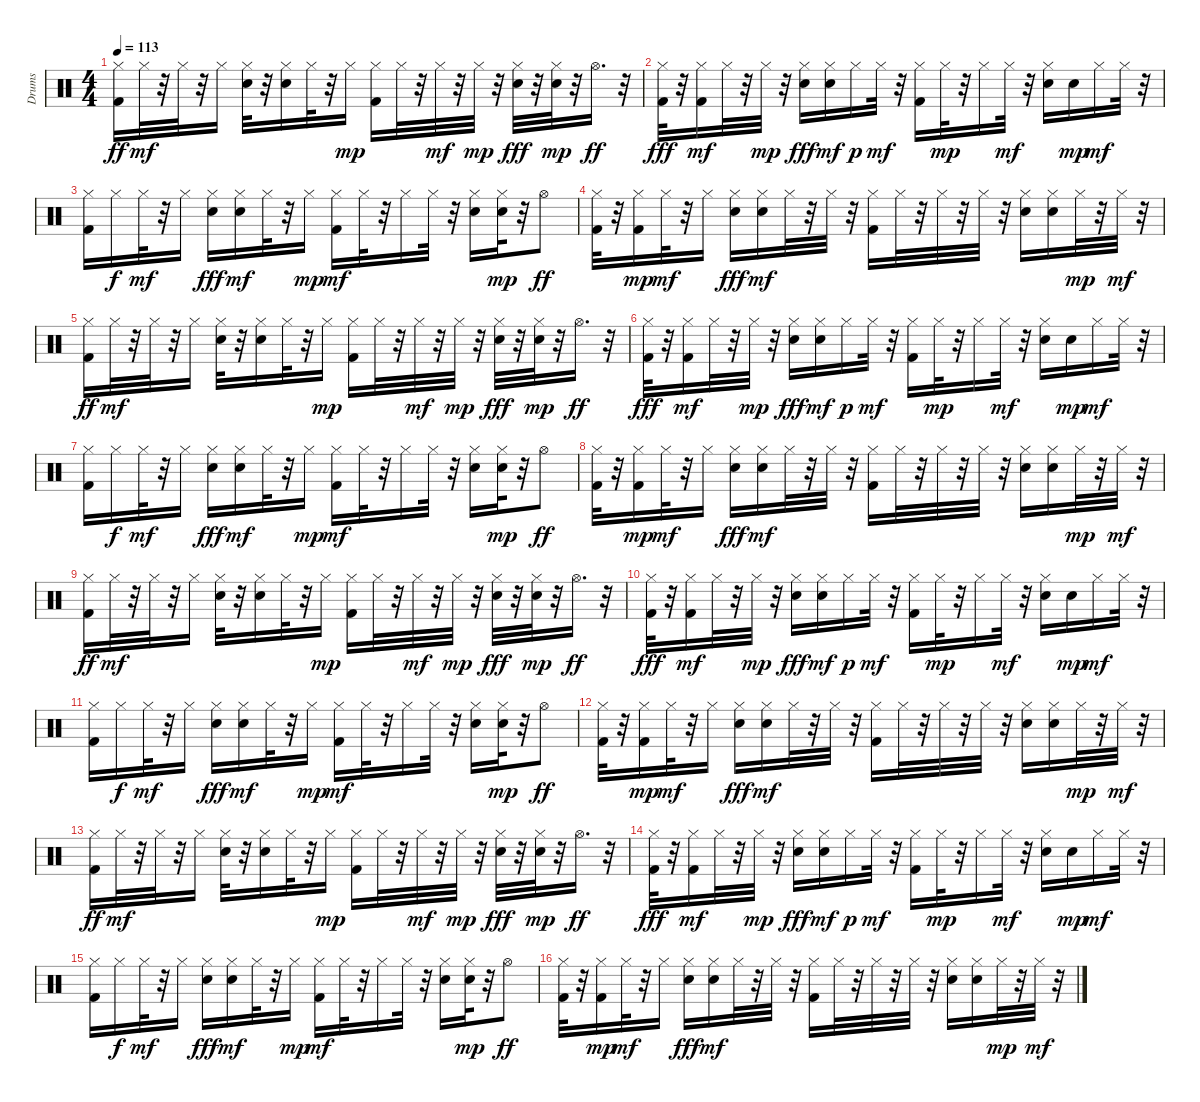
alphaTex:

\track ("Drums" "Drums") {instrument percussion}
\staff {score}
\articulation defaults
\ts (4 4)
\tempo 113
\clef neutral
\ks c
("Kick (hit) 2" "Hi-Hat (closed)").16{dy ff} "Hi-Hat (closed)".32{dy mf} r.32 "Hi-Hat (closed)".32 r.32 "Hi-Hat (closed)".16 ("Electric Snare (hit)" "Hi-Hat (closed)").32 r.32 ("Electric Snare (hit)" "Hi-Hat (closed)").16 "Hi-Hat (closed)".32 r.32 "Hi-Hat (closed)".16{dy mp} ("Kick (hit) 2" "Hi-Hat (closed)").16 "Hi-Hat (closed)".32 r.32 "Hi-Hat (closed)".32{dy mf} r.32 "Hi-Hat (closed)".32{dy mp} r.32 ("Electric Snare (hit)" "Hi-Hat (closed)").32{dy fff} r.32 ("Electric Snare (hit)" "Hi-Hat (closed)").32{dy mp} r.32 "Hi-Hat (open)".16{d dy ff} r.32 |
("Kick (hit) 2" "Hi-Hat (closed)").32{dy fff} r.32 ("Kick (hit) 2" "Hi-Hat (closed)").16{dy mf} "Hi-Hat (closed)".32 r.32 "Hi-Hat (closed)".32{dy mp} r.32 ("Electric Snare (hit)" "Hi-Hat (closed)").16{dy fff} ("Electric Snare (hit)" "Hi-Hat (closed)").16{dy mf} "Hi-Hat (closed)".16{dy p} "Hi-Hat (closed)".32{dy mf} r.32 ("Kick (hit) 2" "Hi-Hat (closed)").16 "Hi-Hat (closed)".32{dy mp} r.32 "Hi-Hat (closed)".16 "Hi-Hat (closed)".32{dy mf} r.32 ("Electric Snare (hit)" "Hi-Hat (closed)").16 "Electric Snare (hit)".16{dy mp} "Hi-Hat (closed)".16{dy mf} "Hi-Hat (closed)".32 r.32 |
("Kick (hit) 2" "Hi-Hat (closed)").16 "Hi-Hat (closed)".16{dy f} "Hi-Hat (closed)".32{dy mf} r.32 "Hi-Hat (closed)".16 ("Electric Snare (hit)" "Hi-Hat (closed)").16{dy fff} ("Electric Snare (hit)" "Hi-Hat (closed)").16{dy mf} "Hi-Hat (closed)".32 r.32 "Hi-Hat (closed)".16{dy mp} ("Kick (hit) 2" "Hi-Hat (closed)").16{dy mf} "Hi-Hat (closed)".32 r.32 "Hi-Hat (closed)".16 "Hi-Hat (closed)".32 r.32 ("Electric Snare (hit)" "Hi-Hat (closed)").16 ("Electric Snare (hit)" "Hi-Hat (closed)").32{dy mp} r.32 "Hi-Hat (open)".8{dy ff} |
("Kick (hit) 2" "Hi-Hat (closed)").32 r.32 ("Kick (hit) 2" "Hi-Hat (closed)").16{dy mp} "Hi-Hat (closed)".32{dy mf} r.32 "Hi-Hat (closed)".16 ("Electric Snare (hit)" "Hi-Hat (closed)").16{dy fff} ("Electric Snare (hit)" "Hi-Hat (closed)").16{dy mf} "Hi-Hat (closed)".32 r.32 "Hi-Hat (closed)".32 r.32 ("Kick (hit) 2" "Hi-Hat (closed)").16 "Hi-Hat (closed)".32 r.32 "Hi-Hat (closed)".32 r.32 "Hi-Hat (closed)".32 r.32 ("Electric Snare (hit)" "Hi-Hat (closed)").16 ("Electric Snare (hit)" "Hi-Hat (closed)").16 "Hi-Hat (closed)".32{dy mp} r.32 "Hi-Hat (closed)".32{dy mf} r.32 |
("Kick (hit) 2" "Hi-Hat (closed)").16{dy ff} "Hi-Hat (closed)".32{dy mf} r.32 "Hi-Hat (closed)".32 r.32 "Hi-Hat (closed)".16 ("Electric Snare (hit)" "Hi-Hat (closed)").32 r.32 ("Electric Snare (hit)" "Hi-Hat (closed)").16 "Hi-Hat (closed)".32 r.32 "Hi-Hat (closed)".16{dy mp} ("Kick (hit) 2" "Hi-Hat (closed)").16 "Hi-Hat (closed)".32 r.32 "Hi-Hat (closed)".32{dy mf} r.32 "Hi-Hat (closed)".32{dy mp} r.32 ("Electric Snare (hit)" "Hi-Hat (closed)").32{dy fff} r.32 ("Electric Snare (hit)" "Hi-Hat (closed)").32{dy mp} r.32 "Hi-Hat (open)".16{d dy ff} r.32 |
("Kick (hit) 2" "Hi-Hat (closed)").32{dy fff} r.32 ("Kick (hit) 2" "Hi-Hat (closed)").16{dy mf} "Hi-Hat (closed)".32 r.32 "Hi-Hat (closed)".32{dy mp} r.32 ("Electric Snare (hit)" "Hi-Hat (closed)").16{dy fff} ("Electric Snare (hit)" "Hi-Hat (closed)").16{dy mf} "Hi-Hat (closed)".16{dy p} "Hi-Hat (closed)".32{dy mf} r.32 ("Kick (hit) 2" "Hi-Hat (closed)").16 "Hi-Hat (closed)".32{dy mp} r.32 "Hi-Hat (closed)".16 "Hi-Hat (closed)".32{dy mf} r.32 ("Electric Snare (hit)" "Hi-Hat (closed)").16 "Electric Snare (hit)".16{dy mp} "Hi-Hat (closed)".16{dy mf} "Hi-Hat (closed)".32 r.32 |
("Kick (hit) 2" "Hi-Hat (closed)").16 "Hi-Hat (closed)".16{dy f} "Hi-Hat (closed)".32{dy mf} r.32 "Hi-Hat (closed)".16 ("Electric Snare (hit)" "Hi-Hat (closed)").16{dy fff} ("Electric Snare (hit)" "Hi-Hat (closed)").16{dy mf} "Hi-Hat (closed)".32 r.32 "Hi-Hat (closed)".16{dy mp} ("Kick (hit) 2" "Hi-Hat (closed)").16{dy mf} "Hi-Hat (closed)".32 r.32 "Hi-Hat (closed)".16 "Hi-Hat (closed)".32 r.32 ("Electric Snare (hit)" "Hi-Hat (closed)").16 ("Electric Snare (hit)" "Hi-Hat (closed)").32{dy mp} r.32 "Hi-Hat (open)".8{dy ff} |
("Kick (hit) 2" "Hi-Hat (closed)").32 r.32 ("Kick (hit) 2" "Hi-Hat (closed)").16{dy mp} "Hi-Hat (closed)".32{dy mf} r.32 "Hi-Hat (closed)".16 ("Electric Snare (hit)" "Hi-Hat (closed)").16{dy fff} ("Electric Snare (hit)" "Hi-Hat (closed)").16{dy mf} "Hi-Hat (closed)".32 r.32 "Hi-Hat (closed)".32 r.32 ("Kick (hit) 2" "Hi-Hat (closed)").16 "Hi-Hat (closed)".32 r.32 "Hi-Hat (closed)".32 r.32 "Hi-Hat (closed)".32 r.32 ("Electric Snare (hit)" "Hi-Hat (closed)").16 ("Electric Snare (hit)" "Hi-Hat (closed)").16 "Hi-Hat (closed)".32{dy mp} r.32 "Hi-Hat (closed)".32{dy mf} r.32 |
("Kick (hit) 2" "Hi-Hat (closed)").16{dy ff} "Hi-Hat (closed)".32{dy mf} r.32 "Hi-Hat (closed)".32 r.32 "Hi-Hat (closed)".16 ("Electric Snare (hit)" "Hi-Hat (closed)").32 r.32 ("Electric Snare (hit)" "Hi-Hat (closed)").16 "Hi-Hat (closed)".32 r.32 "Hi-Hat (closed)".16{dy mp} ("Kick (hit) 2" "Hi-Hat (closed)").16 "Hi-Hat (closed)".32 r.32 "Hi-Hat (closed)".32{dy mf} r.32 "Hi-Hat (closed)".32{dy mp} r.32 ("Electric Snare (hit)" "Hi-Hat (closed)").32{dy fff} r.32 ("Electric Snare (hit)" "Hi-Hat (closed)").32{dy mp} r.32 "Hi-Hat (open)".16{d dy ff} r.32 |
("Kick (hit) 2" "Hi-Hat (closed)").32{dy fff} r.32 ("Kick (hit) 2" "Hi-Hat (closed)").16{dy mf} "Hi-Hat (closed)".32 r.32 "Hi-Hat (closed)".32{dy mp} r.32 ("Electric Snare (hit)" "Hi-Hat (closed)").16{dy fff} ("Electric Snare (hit)" "Hi-Hat (closed)").16{dy mf} "Hi-Hat (closed)".16{dy p} "Hi-Hat (closed)".32{dy mf} r.32 ("Kick (hit) 2" "Hi-Hat (closed)").16 "Hi-Hat (closed)".32{dy mp} r.32 "Hi-Hat (closed)".16 "Hi-Hat (closed)".32{dy mf} r.32 ("Electric Snare (hit)" "Hi-Hat (closed)").16 "Electric Snare (hit)".16{dy mp} "Hi-Hat (closed)".16{dy mf} "Hi-Hat (closed)".32 r.32 |
("Kick (hit) 2" "Hi-Hat (closed)").16 "Hi-Hat (closed)".16{dy f} "Hi-Hat (closed)".32{dy mf} r.32 "Hi-Hat (closed)".16 ("Electric Snare (hit)" "Hi-Hat (closed)").16{dy fff} ("Electric Snare (hit)" "Hi-Hat (closed)").16{dy mf} "Hi-Hat (closed)".32 r.32 "Hi-Hat (closed)".16{dy mp} ("Kick (hit) 2" "Hi-Hat (closed)").16{dy mf} "Hi-Hat (closed)".32 r.32 "Hi-Hat (closed)".16 "Hi-Hat (closed)".32 r.32 ("Electric Snare (hit)" "Hi-Hat (closed)").16 ("Electric Snare (hit)" "Hi-Hat (closed)").32{dy mp} r.32 "Hi-Hat (open)".8{dy ff} |
("Kick (hit) 2" "Hi-Hat (closed)").32 r.32 ("Kick (hit) 2" "Hi-Hat (closed)").16{dy mp} "Hi-Hat (closed)".32{dy mf} r.32 "Hi-Hat (closed)".16 ("Electric Snare (hit)" "Hi-Hat (closed)").16{dy fff} ("Electric Snare (hit)" "Hi-Hat (closed)").16{dy mf} "Hi-Hat (closed)".32 r.32 "Hi-Hat (closed)".32 r.32 ("Kick (hit) 2" "Hi-Hat (closed)").16 "Hi-Hat (closed)".32 r.32 "Hi-Hat (closed)".32 r.32 "Hi-Hat (closed)".32 r.32 ("Electric Snare (hit)" "Hi-Hat (closed)").16 ("Electric Snare (hit)" "Hi-Hat (closed)").16 "Hi-Hat (closed)".32{dy mp} r.32 "Hi-Hat (closed)".32{dy mf} r.32 |
("Kick (hit) 2" "Hi-Hat (closed)").16{dy ff} "Hi-Hat (closed)".32{dy mf} r.32 "Hi-Hat (closed)".32 r.32 "Hi-Hat (closed)".16 ("Electric Snare (hit)" "Hi-Hat (closed)").32 r.32 ("Electric Snare (hit)" "Hi-Hat (closed)").16 "Hi-Hat (closed)".32 r.32 "Hi-Hat (closed)".16{dy mp} ("Kick (hit) 2" "Hi-Hat (closed)").16 "Hi-Hat (closed)".32 r.32 "Hi-Hat (closed)".32{dy mf} r.32 "Hi-Hat (closed)".32{dy mp} r.32 ("Electric Snare (hit)" "Hi-Hat (closed)").32{dy fff} r.32 ("Electric Snare (hit)" "Hi-Hat (closed)").32{dy mp} r.32 "Hi-Hat (open)".16{d dy ff} r.32 |
("Kick (hit) 2" "Hi-Hat (closed)").32{dy fff} r.32 ("Kick (hit) 2" "Hi-Hat (closed)").16{dy mf} "Hi-Hat (closed)".32 r.32 "Hi-Hat (closed)".32{dy mp} r.32 ("Electric Snare (hit)" "Hi-Hat (closed)").16{dy fff} ("Electric Snare (hit)" "Hi-Hat (closed)").16{dy mf} "Hi-Hat (closed)".16{dy p} "Hi-Hat (closed)".32{dy mf} r.32 ("Kick (hit) 2" "Hi-Hat (closed)").16 "Hi-Hat (closed)".32{dy mp} r.32 "Hi-Hat (closed)".16 "Hi-Hat (closed)".32{dy mf} r.32 ("Electric Snare (hit)" "Hi-Hat (closed)").16 "Electric Snare (hit)".16{dy mp} "Hi-Hat (closed)".16{dy mf} "Hi-Hat (closed)".32 r.32 |
("Kick (hit) 2" "Hi-Hat (closed)").16 "Hi-Hat (closed)".16{dy f} "Hi-Hat (closed)".32{dy mf} r.32 "Hi-Hat (closed)".16 ("Electric Snare (hit)" "Hi-Hat (closed)").16{dy fff} ("Electric Snare (hit)" "Hi-Hat (closed)").16{dy mf} "Hi-Hat (closed)".32 r.32 "Hi-Hat (closed)".16{dy mp} ("Kick (hit) 2" "Hi-Hat (closed)").16{dy mf} "Hi-Hat (closed)".32 r.32 "Hi-Hat (closed)".16 "Hi-Hat (closed)".32 r.32 ("Electric Snare (hit)" "Hi-Hat (closed)").16 ("Electric Snare (hit)" "Hi-Hat (closed)").32{dy mp} r.32 "Hi-Hat (open)".8{dy ff} |
("Kick (hit) 2" "Hi-Hat (closed)").32 r.32 ("Kick (hit) 2" "Hi-Hat (closed)").16{dy mp} "Hi-Hat (closed)".32{dy mf} r.32 "Hi-Hat (closed)".16 ("Electric Snare (hit)" "Hi-Hat (closed)").16{dy fff} ("Electric Snare (hit)" "Hi-Hat (closed)").16{dy mf} "Hi-Hat (closed)".32 r.32 "Hi-Hat (closed)".32 r.32 ("Kick (hit) 2" "Hi-Hat (closed)").16 "Hi-Hat (closed)".32 r.32 "Hi-Hat (closed)".32 r.32 "Hi-Hat (closed)".32 r.32 ("Electric Snare (hit)" "Hi-Hat (closed)").16 ("Electric Snare (hit)" "Hi-Hat (closed)").16 "Hi-Hat (closed)".32{dy mp} r.32 "Hi-Hat (closed)".32{dy mf} r.32
